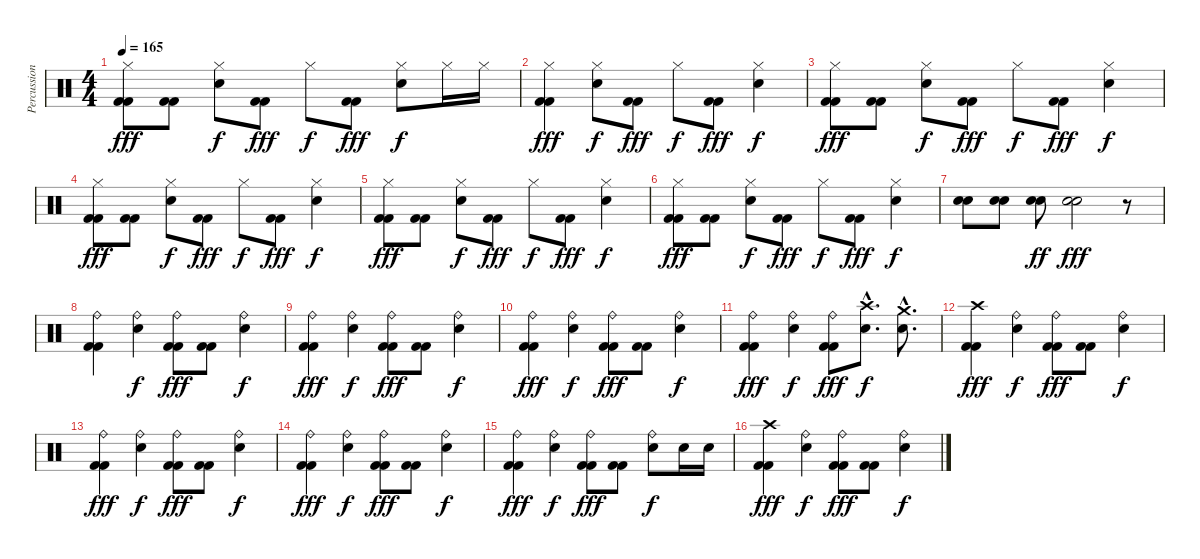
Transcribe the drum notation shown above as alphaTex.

\track ("Percussions" "Percussion") {instrument percussion}
\staff {score}
\articulation defaults
\ts (4 4)
\tempo 165
\clef neutral
\ks c
("Hi-Hat (closed)" "Kick (hit) 2" "Kick (hit) 2").8{dy fff} ("Kick (hit) 2" "Kick (hit) 2").8 ("Hi-Hat (closed)" "Electric Snare (hit)").8{dy f} ("Kick (hit) 2" "Kick (hit) 2").8{dy fff} "Hi-Hat (closed)".8{dy f} ("Kick (hit) 2" "Kick (hit) 2").8{dy fff} ("Hi-Hat (closed)" "Electric Snare (hit)").8{dy f} "Hi-Hat (closed)".16 "Hi-Hat (closed)".16 |
("Hi-Hat (closed)" "Kick (hit) 2" "Kick (hit) 2").4{dy fff} ("Hi-Hat (closed)" "Electric Snare (hit)").8{dy f} ("Kick (hit) 2" "Kick (hit) 2").8{dy fff} "Hi-Hat (closed)".8{dy f} ("Kick (hit) 2" "Kick (hit) 2").8{dy fff} ("Hi-Hat (closed)" "Electric Snare (hit)").4{dy f} |
("Hi-Hat (closed)" "Kick (hit) 2" "Kick (hit) 2").8{dy fff} ("Kick (hit) 2" "Kick (hit) 2").8 ("Hi-Hat (closed)" "Electric Snare (hit)").8{dy f} ("Kick (hit) 2" "Kick (hit) 2").8{dy fff} "Hi-Hat (closed)".8{dy f} ("Kick (hit) 2" "Kick (hit) 2").8{dy fff} ("Hi-Hat (closed)" "Electric Snare (hit)").4{dy f} |
("Hi-Hat (closed)" "Kick (hit) 2" "Kick (hit) 2").8{dy fff} ("Kick (hit) 2" "Kick (hit) 2").8 ("Hi-Hat (closed)" "Electric Snare (hit)").8{dy f} ("Kick (hit) 2" "Kick (hit) 2").8{dy fff} "Hi-Hat (closed)".8{dy f} ("Kick (hit) 2" "Kick (hit) 2").8{dy fff} ("Hi-Hat (closed)" "Electric Snare (hit)").4{dy f} |
("Hi-Hat (closed)" "Kick (hit) 2" "Kick (hit) 2").8{dy fff} ("Kick (hit) 2" "Kick (hit) 2").8 ("Hi-Hat (closed)" "Electric Snare (hit)").8{dy f} ("Kick (hit) 2" "Kick (hit) 2").8{dy fff} "Hi-Hat (closed)".8{dy f} ("Kick (hit) 2" "Kick (hit) 2").8{dy fff} ("Hi-Hat (closed)" "Electric Snare (hit)").4{dy f} |
("Hi-Hat (closed)" "Kick (hit) 2" "Kick (hit) 2").8{dy fff} ("Kick (hit) 2" "Kick (hit) 2").8 ("Hi-Hat (closed)" "Electric Snare (hit)").8{dy f} ("Kick (hit) 2" "Kick (hit) 2").8{dy fff} "Hi-Hat (closed)".8{dy f} ("Kick (hit) 2" "Kick (hit) 2").8{dy fff} ("Hi-Hat (closed)" "Electric Snare (hit)").4{dy f} |
("Electric Snare (hit)" "Electric Snare (hit)").8 ("Electric Snare (hit)" "Electric Snare (hit)").8 ("Electric Snare (hit)" "Electric Snare (hit)").8{dy ff} ("Electric Snare (hit)" "Electric Snare (hit)").2{dy fff} r.8 |
("Ride (bell)" "Kick (hit) 2" "Kick (hit) 2").4{volume 16} ("Ride (bell)" "Electric Snare (hit)").4{dy f} ("Ride (bell)" "Kick (hit) 2" "Kick (hit) 2").8{dy fff} ("Kick (hit) 2" "Kick (hit) 2").8 ("Ride (bell)" "Electric Snare (hit)").4{dy f} |
("Ride (bell)" "Kick (hit) 2" "Kick (hit) 2").4{dy fff} ("Ride (bell)" "Electric Snare (hit)").4{dy f} ("Ride (bell)" "Kick (hit) 2" "Kick (hit) 2").8{dy fff} ("Kick (hit) 2" "Kick (hit) 2").8 ("Ride (bell)" "Electric Snare (hit)").4{dy f} |
("Ride (bell)" "Kick (hit) 2" "Kick (hit) 2").4{dy fff} ("Ride (bell)" "Electric Snare (hit)").4{dy f} ("Ride (bell)" "Kick (hit) 2" "Kick (hit) 2").8{dy fff} ("Kick (hit) 2" "Kick (hit) 2").8 ("Ride (bell)" "Electric Snare (hit)").4{dy f} |
("Ride (bell)" "Kick (hit) 2" "Kick (hit) 2").4{dy fff} ("Ride (bell)" "Electric Snare (hit)").4{dy f} ("Ride (bell)" "Kick (hit) 2" "Kick (hit) 2").8{dy fff} ("Crash high (hit)"{hac} "Electric Snare (hit)"{hac}).8{d dy f} ("Crash medium (hit)"{hac} "Electric Snare (hit)"{hac}).8{d} |
("Crash high (hit)" "Kick (hit) 2" "Kick (hit) 2").4{dy fff volume 16} ("Ride (bell)" "Electric Snare (hit)").4{dy f} ("Ride (bell)" "Kick (hit) 2" "Kick (hit) 2").8{dy fff} ("Kick (hit) 2" "Kick (hit) 2").8 ("Ride (bell)" "Electric Snare (hit)").4{dy f} |
("Ride (bell)" "Kick (hit) 2" "Kick (hit) 2").4{dy fff volume 16} ("Ride (bell)" "Electric Snare (hit)").4{dy f} ("Ride (bell)" "Kick (hit) 2" "Kick (hit) 2").8{dy fff} ("Kick (hit) 2" "Kick (hit) 2").8 ("Ride (bell)" "Electric Snare (hit)").4{dy f} |
("Ride (bell)" "Kick (hit) 2" "Kick (hit) 2").4{dy fff} ("Ride (bell)" "Electric Snare (hit)").4{dy f} ("Ride (bell)" "Kick (hit) 2" "Kick (hit) 2").8{dy fff} ("Kick (hit) 2" "Kick (hit) 2").8 ("Ride (bell)" "Electric Snare (hit)").4{dy f} |
("Ride (bell)" "Kick (hit) 2" "Kick (hit) 2").4{dy fff} ("Ride (bell)" "Electric Snare (hit)").4{dy f} ("Ride (bell)" "Kick (hit) 2" "Kick (hit) 2").8{dy fff} ("Kick (hit) 2" "Kick (hit) 2").8 ("Ride (bell)" "Electric Snare (hit)").8{dy f} "Electric Snare (hit)".16 "Electric Snare (hit)".16 |
("Crash high (hit)" "Kick (hit) 2" "Kick (hit) 2").4{dy fff} ("Ride (bell)" "Electric Snare (hit)").4{dy f} ("Ride (bell)" "Kick (hit) 2" "Kick (hit) 2").8{dy fff} ("Kick (hit) 2" "Kick (hit) 2").8 ("Ride (bell)" "Electric Snare (hit)").4{dy f}
